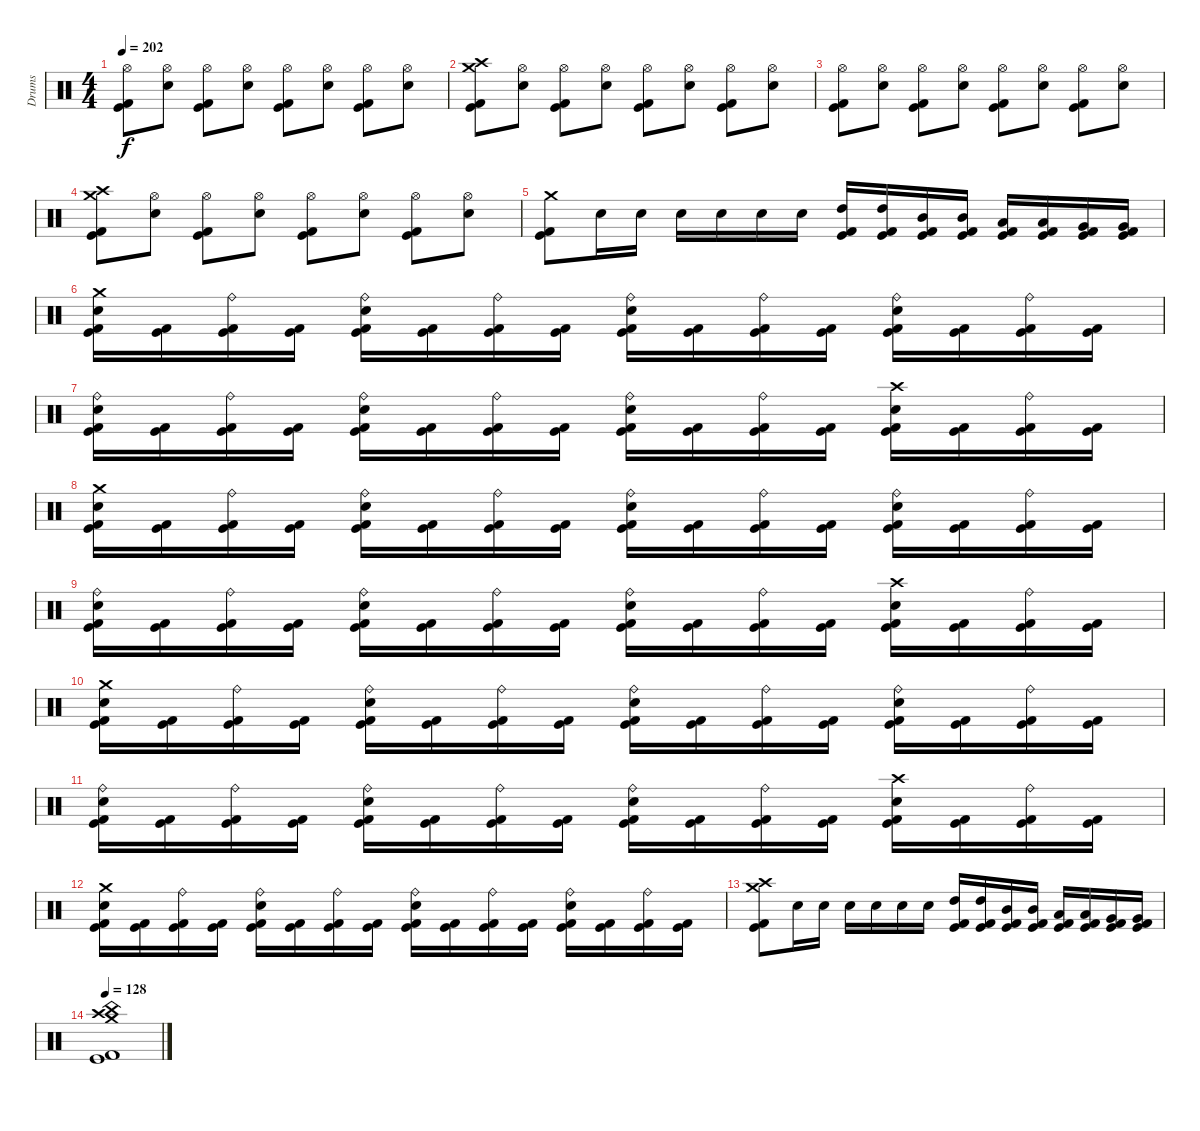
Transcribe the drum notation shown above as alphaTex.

\track ("Drums" "Drums") {instrument percussion}
\staff {score}
\articulation defaults
\ts (4 4)
\tempo 202
\clef neutral
\ks c
("Hi-Hat (open)" "Kick (hit)" "Kick (hit) 2").8{dy f} ("Hi-Hat (open)" "Electric Snare (hit)").8 ("Hi-Hat (open)" "Kick (hit)" "Kick (hit) 2").8 ("Hi-Hat (open)" "Electric Snare (hit)").8 ("Hi-Hat (open)" "Kick (hit)" "Kick (hit) 2").8 ("Hi-Hat (open)" "Electric Snare (hit)").8 ("Hi-Hat (open)" "Kick (hit)" "Kick (hit) 2").8 ("Hi-Hat (open)" "Electric Snare (hit)").8 |
("Crash medium (hit)" "Crash high (hit)" "Kick (hit)" "Kick (hit) 2").8 ("Hi-Hat (open)" "Electric Snare (hit)").8 ("Hi-Hat (open)" "Kick (hit)" "Kick (hit) 2").8 ("Hi-Hat (open)" "Electric Snare (hit)").8 ("Hi-Hat (open)" "Kick (hit)" "Kick (hit) 2").8 ("Hi-Hat (open)" "Electric Snare (hit)").8 ("Hi-Hat (open)" "Kick (hit)" "Kick (hit) 2").8 ("Hi-Hat (open)" "Electric Snare (hit)").8 |
("Hi-Hat (open)" "Kick (hit)" "Kick (hit) 2").8 ("Hi-Hat (open)" "Electric Snare (hit)").8 ("Hi-Hat (open)" "Kick (hit)" "Kick (hit) 2").8 ("Hi-Hat (open)" "Electric Snare (hit)").8 ("Hi-Hat (open)" "Kick (hit)" "Kick (hit) 2").8 ("Hi-Hat (open)" "Electric Snare (hit)").8 ("Hi-Hat (open)" "Kick (hit)" "Kick (hit) 2").8 ("Hi-Hat (open)" "Electric Snare (hit)").8 |
("Crash medium (hit)" "Crash high (hit)" "Kick (hit)" "Kick (hit) 2").8 ("Hi-Hat (open)" "Electric Snare (hit)").8 ("Hi-Hat (open)" "Kick (hit)" "Kick (hit) 2").8 ("Hi-Hat (open)" "Electric Snare (hit)").8 ("Hi-Hat (open)" "Kick (hit)" "Kick (hit) 2").8 ("Hi-Hat (open)" "Electric Snare (hit)").8 ("Hi-Hat (open)" "Kick (hit)" "Kick (hit) 2").8 ("Hi-Hat (open)" "Electric Snare (hit)").8 |
("Crash medium (hit)" "Kick (hit)" "Kick (hit) 2").8 "Electric Snare (hit)".16 "Electric Snare (hit)".16 "Electric Snare (hit)".16 "Electric Snare (hit)".16 "Electric Snare (hit)".16 "Electric Snare (hit)".16 ("High Tom (hit)" "Kick (hit)" "Kick (hit) 2").16 ("High Tom (hit)" "Kick (hit)" "Kick (hit) 2").16 ("Mid Tom (hit)" "Kick (hit)" "Kick (hit) 2").16 ("Mid Tom (hit)" "Kick (hit)" "Kick (hit) 2").16 ("Low Tom (hit)" "Kick (hit)" "Kick (hit) 2").16 ("Low Tom (hit)" "Kick (hit)" "Kick (hit) 2").16 ("Very Low Tom (hit)" "Kick (hit)" "Kick (hit) 2").16 ("Very Low Tom (hit)" "Kick (hit)" "Kick (hit) 2").16 |
("Crash medium (hit)" "Electric Snare (hit)" "Kick (hit)" "Kick (hit) 2").16 ("Kick (hit)" "Kick (hit) 2").16 ("Ride (bell)" "Kick (hit)" "Kick (hit) 2").16 ("Kick (hit)" "Kick (hit) 2").16 ("Ride (bell)" "Electric Snare (hit)" "Kick (hit)" "Kick (hit) 2").16 ("Kick (hit)" "Kick (hit) 2").16 ("Ride (bell)" "Kick (hit)" "Kick (hit) 2").16 ("Kick (hit)" "Kick (hit) 2").16 ("Ride (bell)" "Electric Snare (hit)" "Kick (hit)" "Kick (hit) 2").16 ("Kick (hit)" "Kick (hit) 2").16 ("Ride (bell)" "Kick (hit)" "Kick (hit) 2").16 ("Kick (hit)" "Kick (hit) 2").16 ("Ride (bell)" "Electric Snare (hit)" "Kick (hit)" "Kick (hit) 2").16 ("Kick (hit)" "Kick (hit) 2").16 ("Ride (bell)" "Kick (hit)" "Kick (hit) 2").16 ("Kick (hit)" "Kick (hit) 2").16 |
("Ride (bell)" "Electric Snare (hit)" "Kick (hit)" "Kick (hit) 2").16 ("Kick (hit)" "Kick (hit) 2").16 ("Ride (bell)" "Kick (hit)" "Kick (hit) 2").16 ("Kick (hit)" "Kick (hit) 2").16 ("Ride (bell)" "Electric Snare (hit)" "Kick (hit)" "Kick (hit) 2").16 ("Kick (hit)" "Kick (hit) 2").16 ("Ride (bell)" "Kick (hit)" "Kick (hit) 2").16 ("Kick (hit)" "Kick (hit) 2").16 ("Ride (bell)" "Electric Snare (hit)" "Kick (hit)" "Kick (hit) 2").16 ("Kick (hit)" "Kick (hit) 2").16 ("Ride (bell)" "Kick (hit)" "Kick (hit) 2").16 ("Kick (hit)" "Kick (hit) 2").16 ("Crash high (hit)" "Electric Snare (hit)" "Kick (hit)" "Kick (hit) 2").16 ("Kick (hit)" "Kick (hit) 2").16 ("Ride (bell)" "Kick (hit)" "Kick (hit) 2").16 ("Kick (hit)" "Kick (hit) 2").16 |
("Crash medium (hit)" "Electric Snare (hit)" "Kick (hit)" "Kick (hit) 2").16 ("Kick (hit)" "Kick (hit) 2").16 ("Ride (bell)" "Kick (hit)" "Kick (hit) 2").16 ("Kick (hit)" "Kick (hit) 2").16 ("Ride (bell)" "Electric Snare (hit)" "Kick (hit)" "Kick (hit) 2").16 ("Kick (hit)" "Kick (hit) 2").16 ("Ride (bell)" "Kick (hit)" "Kick (hit) 2").16 ("Kick (hit)" "Kick (hit) 2").16 ("Ride (bell)" "Electric Snare (hit)" "Kick (hit)" "Kick (hit) 2").16 ("Kick (hit)" "Kick (hit) 2").16 ("Ride (bell)" "Kick (hit)" "Kick (hit) 2").16 ("Kick (hit)" "Kick (hit) 2").16 ("Ride (bell)" "Electric Snare (hit)" "Kick (hit)" "Kick (hit) 2").16 ("Kick (hit)" "Kick (hit) 2").16 ("Ride (bell)" "Kick (hit)" "Kick (hit) 2").16 ("Kick (hit)" "Kick (hit) 2").16 |
("Ride (bell)" "Electric Snare (hit)" "Kick (hit)" "Kick (hit) 2").16 ("Kick (hit)" "Kick (hit) 2").16 ("Ride (bell)" "Kick (hit)" "Kick (hit) 2").16 ("Kick (hit)" "Kick (hit) 2").16 ("Ride (bell)" "Electric Snare (hit)" "Kick (hit)" "Kick (hit) 2").16 ("Kick (hit)" "Kick (hit) 2").16 ("Ride (bell)" "Kick (hit)" "Kick (hit) 2").16 ("Kick (hit)" "Kick (hit) 2").16 ("Ride (bell)" "Electric Snare (hit)" "Kick (hit)" "Kick (hit) 2").16 ("Kick (hit)" "Kick (hit) 2").16 ("Ride (bell)" "Kick (hit)" "Kick (hit) 2").16 ("Kick (hit)" "Kick (hit) 2").16 ("Crash high (hit)" "Electric Snare (hit)" "Kick (hit)" "Kick (hit) 2").16 ("Kick (hit)" "Kick (hit) 2").16 ("Ride (bell)" "Kick (hit)" "Kick (hit) 2").16 ("Kick (hit)" "Kick (hit) 2").16 |
("Crash medium (hit)" "Electric Snare (hit)" "Kick (hit)" "Kick (hit) 2").16 ("Kick (hit)" "Kick (hit) 2").16 ("Ride (bell)" "Kick (hit)" "Kick (hit) 2").16 ("Kick (hit)" "Kick (hit) 2").16 ("Ride (bell)" "Electric Snare (hit)" "Kick (hit)" "Kick (hit) 2").16 ("Kick (hit)" "Kick (hit) 2").16 ("Ride (bell)" "Kick (hit)" "Kick (hit) 2").16 ("Kick (hit)" "Kick (hit) 2").16 ("Ride (bell)" "Electric Snare (hit)" "Kick (hit)" "Kick (hit) 2").16 ("Kick (hit)" "Kick (hit) 2").16 ("Ride (bell)" "Kick (hit)" "Kick (hit) 2").16 ("Kick (hit)" "Kick (hit) 2").16 ("Ride (bell)" "Electric Snare (hit)" "Kick (hit)" "Kick (hit) 2").16 ("Kick (hit)" "Kick (hit) 2").16 ("Ride (bell)" "Kick (hit)" "Kick (hit) 2").16 ("Kick (hit)" "Kick (hit) 2").16 |
("Ride (bell)" "Electric Snare (hit)" "Kick (hit)" "Kick (hit) 2").16 ("Kick (hit)" "Kick (hit) 2").16 ("Ride (bell)" "Kick (hit)" "Kick (hit) 2").16 ("Kick (hit)" "Kick (hit) 2").16 ("Ride (bell)" "Electric Snare (hit)" "Kick (hit)" "Kick (hit) 2").16 ("Kick (hit)" "Kick (hit) 2").16 ("Ride (bell)" "Kick (hit)" "Kick (hit) 2").16 ("Kick (hit)" "Kick (hit) 2").16 ("Ride (bell)" "Electric Snare (hit)" "Kick (hit)" "Kick (hit) 2").16 ("Kick (hit)" "Kick (hit) 2").16 ("Ride (bell)" "Kick (hit)" "Kick (hit) 2").16 ("Kick (hit)" "Kick (hit) 2").16 ("Crash high (hit)" "Electric Snare (hit)" "Kick (hit)" "Kick (hit) 2").16 ("Kick (hit)" "Kick (hit) 2").16 ("Ride (bell)" "Kick (hit)" "Kick (hit) 2").16 ("Kick (hit)" "Kick (hit) 2").16 |
("Crash medium (hit)" "Electric Snare (hit)" "Kick (hit)" "Kick (hit) 2").16 ("Kick (hit)" "Kick (hit) 2").16 ("Ride (bell)" "Kick (hit)" "Kick (hit) 2").16 ("Kick (hit)" "Kick (hit) 2").16 ("Ride (bell)" "Electric Snare (hit)" "Kick (hit)" "Kick (hit) 2").16 ("Kick (hit)" "Kick (hit) 2").16 ("Ride (bell)" "Kick (hit)" "Kick (hit) 2").16 ("Kick (hit)" "Kick (hit) 2").16 ("Ride (bell)" "Electric Snare (hit)" "Kick (hit)" "Kick (hit) 2").16 ("Kick (hit)" "Kick (hit) 2").16 ("Ride (bell)" "Kick (hit)" "Kick (hit) 2").16 ("Kick (hit)" "Kick (hit) 2").16 ("Ride (bell)" "Electric Snare (hit)" "Kick (hit)" "Kick (hit) 2").16 ("Kick (hit)" "Kick (hit) 2").16 ("Ride (bell)" "Kick (hit)" "Kick (hit) 2").16 ("Kick (hit)" "Kick (hit) 2").16 |
("Crash medium (hit)" "Crash high (hit)" "Kick (hit)" "Kick (hit) 2").8 "Electric Snare (hit)".16 "Electric Snare (hit)".16 "Electric Snare (hit)".16 "Electric Snare (hit)".16 "Electric Snare (hit)".16 "Electric Snare (hit)".16 ("High Tom (hit)" "Kick (hit)" "Kick (hit) 2").16 ("High Tom (hit)" "Kick (hit)" "Kick (hit) 2").16 ("Mid Tom (hit)" "Kick (hit)" "Kick (hit) 2").16 ("Mid Tom (hit)" "Kick (hit)" "Kick (hit) 2").16 ("Low Tom (hit)" "Kick (hit)" "Kick (hit) 2").16 ("Low Tom (hit)" "Kick (hit)" "Kick (hit) 2").16 ("Very Low Tom (hit)" "Kick (hit)" "Kick (hit) 2").16 ("Very Low Tom (hit)" "Kick (hit)" "Kick (hit) 2").16 |
\tempo 128
("Crash medium (hit)" "Crash high (hit)" "China (hit)" "Kick (hit)" "Kick (hit) 2").1
